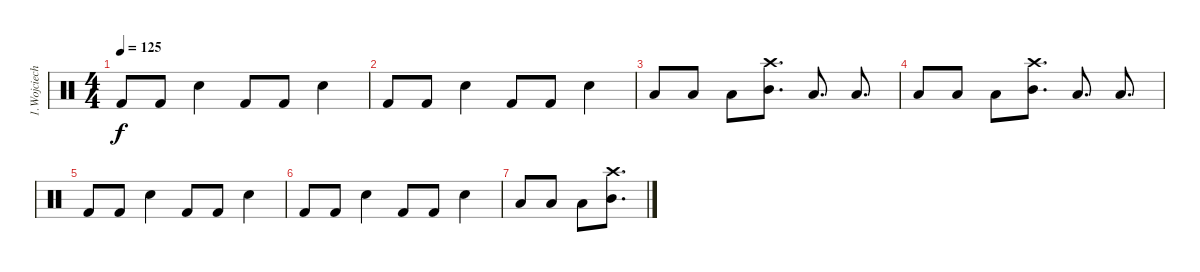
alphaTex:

\track ("1.Wojciech Kuderski (\"Lala\")" "1.Wojciech") {instrument percussion}
\staff {score}
\articulation defaults
\ts (4 4)
\tempo 125
\clef neutral
\ks c "Kick (hit) 2".8{dy f} "Kick (hit) 2".8 "Electric Snare (hit)".4 "Kick (hit) 2".8 "Kick (hit) 2".8 "Electric Snare (hit)".4
|
"Kick (hit) 2".8 "Kick (hit) 2".8 "Electric Snare (hit)".4 "Kick (hit) 2".8 "Kick (hit) 2".8 "Electric Snare (hit)".4 |
"Low Tom (hit)".8 "Low Tom (hit)".8 "Low Tom (hit)".8 ("Mid Tom (hit)" "Crash high (hit)").8{d} "Low Tom (hit)".8{d} "Low Tom (hit)".8{d} |
"Low Tom (hit)".8 "Low Tom (hit)".8 "Low Tom (hit)".8 ("Mid Tom (hit)" "Crash high (hit)").8{d} "Low Tom (hit)".8{d} "Low Tom (hit)".8{d} |
"Kick (hit) 2".8 "Kick (hit) 2".8 "Electric Snare (hit)".4 "Kick (hit) 2".8 "Kick (hit) 2".8 "Electric Snare (hit)".4 |
"Kick (hit) 2".8 "Kick (hit) 2".8 "Electric Snare (hit)".4 "Kick (hit) 2".8 "Kick (hit) 2".8 "Electric Snare (hit)".4 |
"Low Tom (hit)".8 "Low Tom (hit)".8 "Low Tom (hit)".8 ("Mid Tom (hit)" "Crash high (hit)").8{d}
